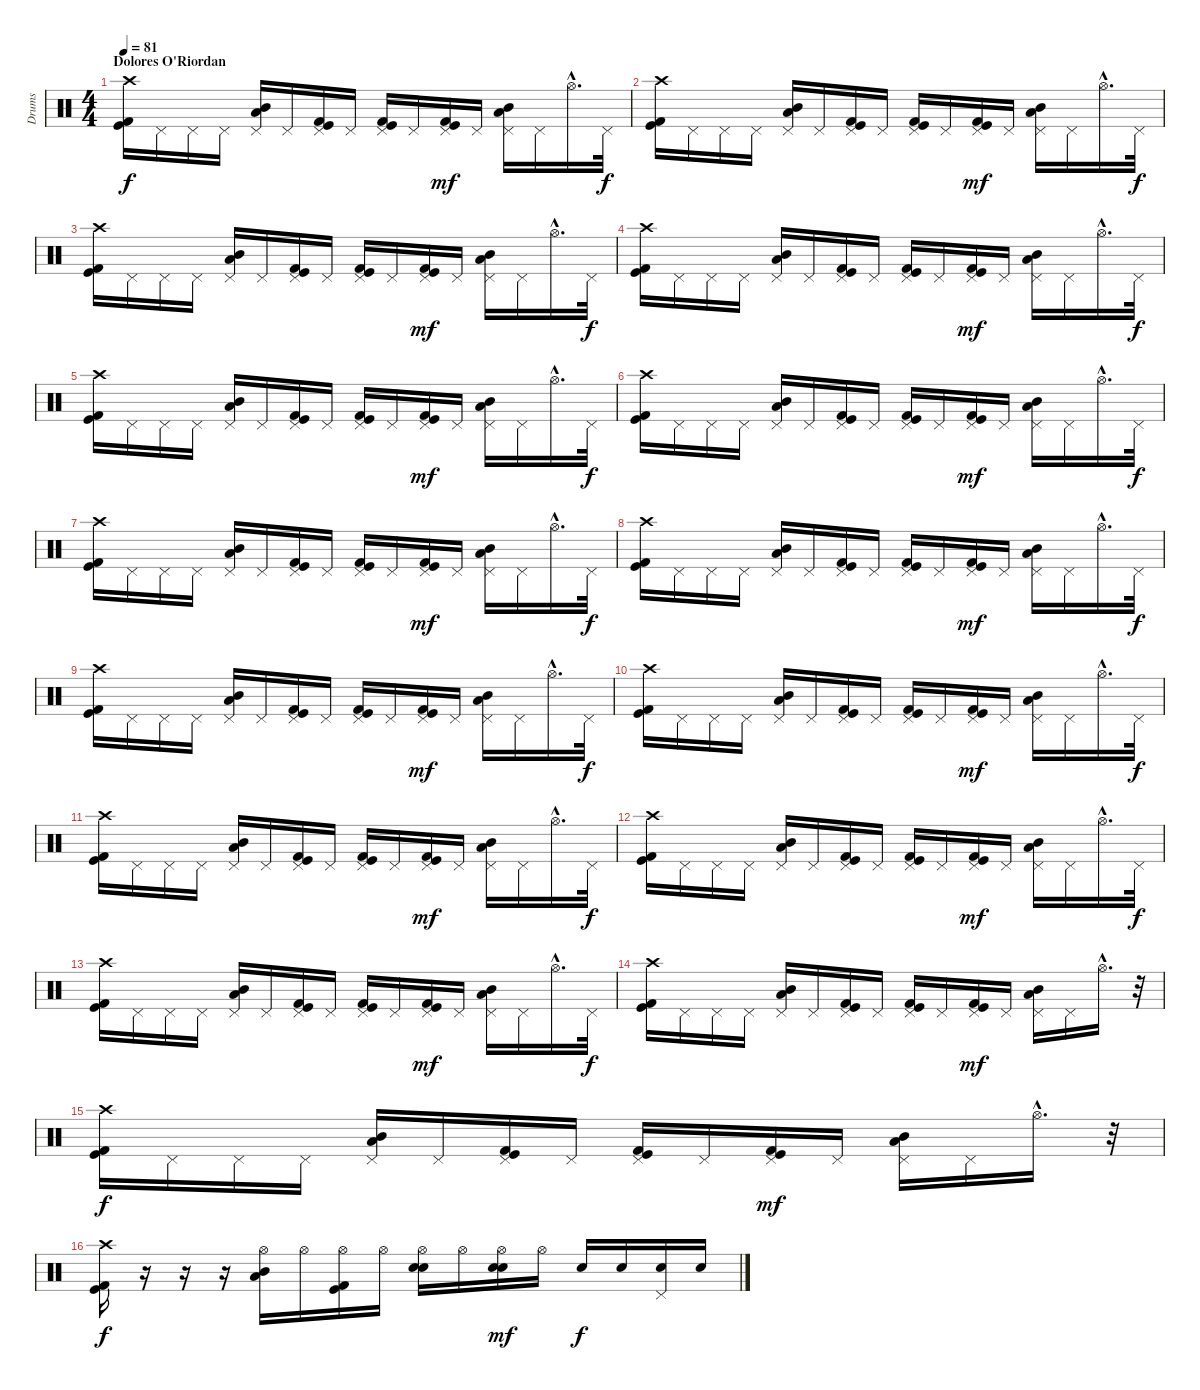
\track ("Drums" "Drums") {instrument percussion}
\staff {score}
\articulation defaults
\ts (4 4)
\section ("" "Dolores O'Riordan")
\tempo 81
\clef neutral
\ks c
("Crash high (hit)" "Kick (hit)" "Kick (hit) 2").16{dy f} "Pedal Hi-Hat (hit)".16 "Pedal Hi-Hat (hit)".16 "Pedal Hi-Hat (hit)".16 ("Pedal Hi-Hat (hit)" "Mid Tom (hit)" "Low Tom (hit)").16 "Pedal Hi-Hat (hit)".16 ("Pedal Hi-Hat (hit)" "Kick (hit)" "Kick (hit) 2").16 "Pedal Hi-Hat (hit)".16 ("Pedal Hi-Hat (hit)" "Kick (hit)" "Kick (hit) 2").16 "Pedal Hi-Hat (hit)".16 ("Pedal Hi-Hat (hit)" "Kick (hit)" "Kick (hit) 2").16{dy mf} "Pedal Hi-Hat (hit)".16 ("Pedal Hi-Hat (hit)" "Mid Tom (hit)" "Low Tom (hit)").16 "Pedal Hi-Hat (hit)".16 "Hi-Hat (open)"{hac}.16{d} "Pedal Hi-Hat (hit)".32{dy f} |
("Crash high (hit)" "Kick (hit)" "Kick (hit) 2").16 "Pedal Hi-Hat (hit)".16 "Pedal Hi-Hat (hit)".16 "Pedal Hi-Hat (hit)".16 ("Pedal Hi-Hat (hit)" "Mid Tom (hit)" "Low Tom (hit)").16 "Pedal Hi-Hat (hit)".16 ("Pedal Hi-Hat (hit)" "Kick (hit)" "Kick (hit) 2").16 "Pedal Hi-Hat (hit)".16 ("Pedal Hi-Hat (hit)" "Kick (hit)" "Kick (hit) 2").16 "Pedal Hi-Hat (hit)".16 ("Pedal Hi-Hat (hit)" "Kick (hit)" "Kick (hit) 2").16{dy mf} "Pedal Hi-Hat (hit)".16 ("Pedal Hi-Hat (hit)" "Mid Tom (hit)" "Low Tom (hit)").16 "Pedal Hi-Hat (hit)".16 "Hi-Hat (open)"{hac}.16{d} "Pedal Hi-Hat (hit)".32{dy f} |
("Crash high (hit)" "Kick (hit)" "Kick (hit) 2").16 "Pedal Hi-Hat (hit)".16 "Pedal Hi-Hat (hit)".16 "Pedal Hi-Hat (hit)".16 ("Pedal Hi-Hat (hit)" "Mid Tom (hit)" "Low Tom (hit)").16 "Pedal Hi-Hat (hit)".16 ("Pedal Hi-Hat (hit)" "Kick (hit)" "Kick (hit) 2").16 "Pedal Hi-Hat (hit)".16 ("Pedal Hi-Hat (hit)" "Kick (hit)" "Kick (hit) 2").16 "Pedal Hi-Hat (hit)".16 ("Pedal Hi-Hat (hit)" "Kick (hit)" "Kick (hit) 2").16{dy mf} "Pedal Hi-Hat (hit)".16 ("Pedal Hi-Hat (hit)" "Mid Tom (hit)" "Low Tom (hit)").16 "Pedal Hi-Hat (hit)".16 "Hi-Hat (open)"{hac}.16{d} "Pedal Hi-Hat (hit)".32{dy f} |
("Crash high (hit)" "Kick (hit)" "Kick (hit) 2").16 "Pedal Hi-Hat (hit)".16 "Pedal Hi-Hat (hit)".16 "Pedal Hi-Hat (hit)".16 ("Pedal Hi-Hat (hit)" "Mid Tom (hit)" "Low Tom (hit)").16 "Pedal Hi-Hat (hit)".16 ("Pedal Hi-Hat (hit)" "Kick (hit)" "Kick (hit) 2").16 "Pedal Hi-Hat (hit)".16 ("Pedal Hi-Hat (hit)" "Kick (hit)" "Kick (hit) 2").16 "Pedal Hi-Hat (hit)".16 ("Pedal Hi-Hat (hit)" "Kick (hit)" "Kick (hit) 2").16{dy mf} "Pedal Hi-Hat (hit)".16 ("Pedal Hi-Hat (hit)" "Mid Tom (hit)" "Low Tom (hit)").16 "Pedal Hi-Hat (hit)".16 "Hi-Hat (open)"{hac}.16{d} "Pedal Hi-Hat (hit)".32{dy f} |
("Crash high (hit)" "Kick (hit)" "Kick (hit) 2").16 "Pedal Hi-Hat (hit)".16 "Pedal Hi-Hat (hit)".16 "Pedal Hi-Hat (hit)".16 ("Pedal Hi-Hat (hit)" "Mid Tom (hit)" "Low Tom (hit)").16 "Pedal Hi-Hat (hit)".16 ("Pedal Hi-Hat (hit)" "Kick (hit)" "Kick (hit) 2").16 "Pedal Hi-Hat (hit)".16 ("Pedal Hi-Hat (hit)" "Kick (hit)" "Kick (hit) 2").16 "Pedal Hi-Hat (hit)".16 ("Pedal Hi-Hat (hit)" "Kick (hit)" "Kick (hit) 2").16{dy mf} "Pedal Hi-Hat (hit)".16 ("Pedal Hi-Hat (hit)" "Mid Tom (hit)" "Low Tom (hit)").16 "Pedal Hi-Hat (hit)".16 "Hi-Hat (open)"{hac}.16{d} "Pedal Hi-Hat (hit)".32{dy f} |
("Crash high (hit)" "Kick (hit)" "Kick (hit) 2").16 "Pedal Hi-Hat (hit)".16 "Pedal Hi-Hat (hit)".16 "Pedal Hi-Hat (hit)".16 ("Pedal Hi-Hat (hit)" "Mid Tom (hit)" "Low Tom (hit)").16 "Pedal Hi-Hat (hit)".16 ("Pedal Hi-Hat (hit)" "Kick (hit)" "Kick (hit) 2").16 "Pedal Hi-Hat (hit)".16 ("Pedal Hi-Hat (hit)" "Kick (hit)" "Kick (hit) 2").16 "Pedal Hi-Hat (hit)".16 ("Pedal Hi-Hat (hit)" "Kick (hit)" "Kick (hit) 2").16{dy mf} "Pedal Hi-Hat (hit)".16 ("Pedal Hi-Hat (hit)" "Mid Tom (hit)" "Low Tom (hit)").16 "Pedal Hi-Hat (hit)".16 "Hi-Hat (open)"{hac}.16{d} "Pedal Hi-Hat (hit)".32{dy f} |
("Crash high (hit)" "Kick (hit)" "Kick (hit) 2").16 "Pedal Hi-Hat (hit)".16 "Pedal Hi-Hat (hit)".16 "Pedal Hi-Hat (hit)".16 ("Pedal Hi-Hat (hit)" "Mid Tom (hit)" "Low Tom (hit)").16 "Pedal Hi-Hat (hit)".16 ("Pedal Hi-Hat (hit)" "Kick (hit)" "Kick (hit) 2").16 "Pedal Hi-Hat (hit)".16 ("Pedal Hi-Hat (hit)" "Kick (hit)" "Kick (hit) 2").16 "Pedal Hi-Hat (hit)".16 ("Pedal Hi-Hat (hit)" "Kick (hit)" "Kick (hit) 2").16{dy mf} "Pedal Hi-Hat (hit)".16 ("Pedal Hi-Hat (hit)" "Mid Tom (hit)" "Low Tom (hit)").16 "Pedal Hi-Hat (hit)".16 "Hi-Hat (open)"{hac}.16{d} "Pedal Hi-Hat (hit)".32{dy f} |
("Crash high (hit)" "Kick (hit)" "Kick (hit) 2").16 "Pedal Hi-Hat (hit)".16 "Pedal Hi-Hat (hit)".16 "Pedal Hi-Hat (hit)".16 ("Pedal Hi-Hat (hit)" "Mid Tom (hit)" "Low Tom (hit)").16 "Pedal Hi-Hat (hit)".16 ("Pedal Hi-Hat (hit)" "Kick (hit)" "Kick (hit) 2").16 "Pedal Hi-Hat (hit)".16 ("Pedal Hi-Hat (hit)" "Kick (hit)" "Kick (hit) 2").16 "Pedal Hi-Hat (hit)".16 ("Pedal Hi-Hat (hit)" "Kick (hit)" "Kick (hit) 2").16{dy mf} "Pedal Hi-Hat (hit)".16 ("Pedal Hi-Hat (hit)" "Mid Tom (hit)" "Low Tom (hit)").16 "Pedal Hi-Hat (hit)".16 "Hi-Hat (open)"{hac}.16{d} "Pedal Hi-Hat (hit)".32{dy f} |
("Crash high (hit)" "Kick (hit)" "Kick (hit) 2").16 "Pedal Hi-Hat (hit)".16 "Pedal Hi-Hat (hit)".16 "Pedal Hi-Hat (hit)".16 ("Pedal Hi-Hat (hit)" "Mid Tom (hit)" "Low Tom (hit)").16 "Pedal Hi-Hat (hit)".16 ("Pedal Hi-Hat (hit)" "Kick (hit)" "Kick (hit) 2").16 "Pedal Hi-Hat (hit)".16 ("Pedal Hi-Hat (hit)" "Kick (hit)" "Kick (hit) 2").16 "Pedal Hi-Hat (hit)".16 ("Pedal Hi-Hat (hit)" "Kick (hit)" "Kick (hit) 2").16{dy mf} "Pedal Hi-Hat (hit)".16 ("Pedal Hi-Hat (hit)" "Mid Tom (hit)" "Low Tom (hit)").16 "Pedal Hi-Hat (hit)".16 "Hi-Hat (open)"{hac}.16{d} "Pedal Hi-Hat (hit)".32{dy f} |
("Crash high (hit)" "Kick (hit)" "Kick (hit) 2").16 "Pedal Hi-Hat (hit)".16 "Pedal Hi-Hat (hit)".16 "Pedal Hi-Hat (hit)".16 ("Pedal Hi-Hat (hit)" "Mid Tom (hit)" "Low Tom (hit)").16 "Pedal Hi-Hat (hit)".16 ("Pedal Hi-Hat (hit)" "Kick (hit)" "Kick (hit) 2").16 "Pedal Hi-Hat (hit)".16 ("Pedal Hi-Hat (hit)" "Kick (hit)" "Kick (hit) 2").16 "Pedal Hi-Hat (hit)".16 ("Pedal Hi-Hat (hit)" "Kick (hit)" "Kick (hit) 2").16{dy mf} "Pedal Hi-Hat (hit)".16 ("Pedal Hi-Hat (hit)" "Mid Tom (hit)" "Low Tom (hit)").16 "Pedal Hi-Hat (hit)".16 "Hi-Hat (open)"{hac}.16{d} "Pedal Hi-Hat (hit)".32{dy f} |
("Crash high (hit)" "Kick (hit)" "Kick (hit) 2").16 "Pedal Hi-Hat (hit)".16 "Pedal Hi-Hat (hit)".16 "Pedal Hi-Hat (hit)".16 ("Pedal Hi-Hat (hit)" "Mid Tom (hit)" "Low Tom (hit)").16 "Pedal Hi-Hat (hit)".16 ("Pedal Hi-Hat (hit)" "Kick (hit)" "Kick (hit) 2").16 "Pedal Hi-Hat (hit)".16 ("Pedal Hi-Hat (hit)" "Kick (hit)" "Kick (hit) 2").16 "Pedal Hi-Hat (hit)".16 ("Pedal Hi-Hat (hit)" "Kick (hit)" "Kick (hit) 2").16{dy mf} "Pedal Hi-Hat (hit)".16 ("Pedal Hi-Hat (hit)" "Mid Tom (hit)" "Low Tom (hit)").16 "Pedal Hi-Hat (hit)".16 "Hi-Hat (open)"{hac}.16{d} "Pedal Hi-Hat (hit)".32{dy f} |
("Crash high (hit)" "Kick (hit)" "Kick (hit) 2").16 "Pedal Hi-Hat (hit)".16 "Pedal Hi-Hat (hit)".16 "Pedal Hi-Hat (hit)".16 ("Pedal Hi-Hat (hit)" "Mid Tom (hit)" "Low Tom (hit)").16 "Pedal Hi-Hat (hit)".16 ("Pedal Hi-Hat (hit)" "Kick (hit)" "Kick (hit) 2").16 "Pedal Hi-Hat (hit)".16 ("Pedal Hi-Hat (hit)" "Kick (hit)" "Kick (hit) 2").16 "Pedal Hi-Hat (hit)".16 ("Pedal Hi-Hat (hit)" "Kick (hit)" "Kick (hit) 2").16{dy mf} "Pedal Hi-Hat (hit)".16 ("Pedal Hi-Hat (hit)" "Mid Tom (hit)" "Low Tom (hit)").16 "Pedal Hi-Hat (hit)".16 "Hi-Hat (open)"{hac}.16{d} "Pedal Hi-Hat (hit)".32{dy f} |
("Crash high (hit)" "Kick (hit)" "Kick (hit) 2").16 "Pedal Hi-Hat (hit)".16 "Pedal Hi-Hat (hit)".16 "Pedal Hi-Hat (hit)".16 ("Pedal Hi-Hat (hit)" "Mid Tom (hit)" "Low Tom (hit)").16 "Pedal Hi-Hat (hit)".16 ("Pedal Hi-Hat (hit)" "Kick (hit)" "Kick (hit) 2").16 "Pedal Hi-Hat (hit)".16 ("Pedal Hi-Hat (hit)" "Kick (hit)" "Kick (hit) 2").16 "Pedal Hi-Hat (hit)".16 ("Pedal Hi-Hat (hit)" "Kick (hit)" "Kick (hit) 2").16{dy mf} "Pedal Hi-Hat (hit)".16 ("Pedal Hi-Hat (hit)" "Mid Tom (hit)" "Low Tom (hit)").16 "Pedal Hi-Hat (hit)".16 "Hi-Hat (open)"{hac}.16{d} "Pedal Hi-Hat (hit)".32{dy f} |
("Crash high (hit)" "Kick (hit)" "Kick (hit) 2").16 "Pedal Hi-Hat (hit)".16 "Pedal Hi-Hat (hit)".16 "Pedal Hi-Hat (hit)".16 ("Pedal Hi-Hat (hit)" "Mid Tom (hit)" "Low Tom (hit)").16 "Pedal Hi-Hat (hit)".16 ("Pedal Hi-Hat (hit)" "Kick (hit)" "Kick (hit) 2").16 "Pedal Hi-Hat (hit)".16 ("Pedal Hi-Hat (hit)" "Kick (hit)" "Kick (hit) 2").16 "Pedal Hi-Hat (hit)".16 ("Pedal Hi-Hat (hit)" "Kick (hit)" "Kick (hit) 2").16{dy mf} "Pedal Hi-Hat (hit)".16 ("Pedal Hi-Hat (hit)" "Mid Tom (hit)" "Low Tom (hit)").16 "Pedal Hi-Hat (hit)".16 "Hi-Hat (open)"{hac}.16{d} r.32 |
("Crash high (hit)" "Kick (hit)" "Kick (hit) 2").16{dy f} "Pedal Hi-Hat (hit)".16 "Pedal Hi-Hat (hit)".16 "Pedal Hi-Hat (hit)".16 ("Pedal Hi-Hat (hit)" "Mid Tom (hit)" "Low Tom (hit)").16 "Pedal Hi-Hat (hit)".16 ("Pedal Hi-Hat (hit)" "Kick (hit)" "Kick (hit) 2").16 "Pedal Hi-Hat (hit)".16 ("Pedal Hi-Hat (hit)" "Kick (hit)" "Kick (hit) 2").16 "Pedal Hi-Hat (hit)".16 ("Pedal Hi-Hat (hit)" "Kick (hit)" "Kick (hit) 2").16{dy mf} "Pedal Hi-Hat (hit)".16 ("Pedal Hi-Hat (hit)" "Mid Tom (hit)" "Low Tom (hit)").16 "Pedal Hi-Hat (hit)".16 "Hi-Hat (open)"{hac}.16{d} r.32 |
("Crash high (hit)" "Kick (hit)" "Kick (hit) 2").16{dy f} r.16 r.16 r.16 ("Hi-Hat (open)" "Mid Tom (hit)" "Low Tom (hit)").16 "Hi-Hat (open)".16 ("Hi-Hat (open)" "Kick (hit)" "Kick (hit) 2").16 "Hi-Hat (open)".16 ("Hi-Hat (open)" "Electric Snare (hit)" "Snare (hit) 2").16 "Hi-Hat (open)".16 ("Hi-Hat (open)" "Electric Snare (hit)" "Snare (hit) 2").16{dy mf} "Hi-Hat (open)".16 "Electric Snare (hit)".16{dy f} "Electric Snare (hit)".16 ("Pedal Hi-Hat (hit)" "Electric Snare (hit)").16 "Electric Snare (hit)".16
